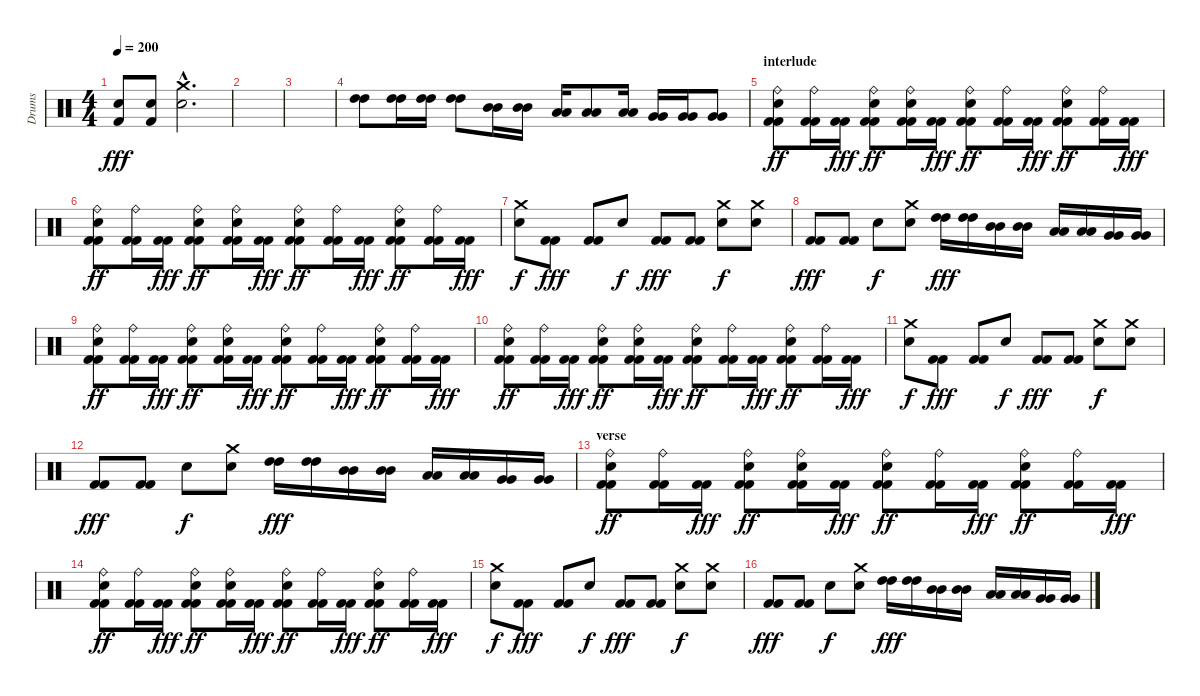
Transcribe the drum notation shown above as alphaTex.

\track ("Drums" "Drums") {instrument percussion}
\staff {score}
\articulation defaults
\ts (4 4)
\tempo 200
\clef neutral
\ks c
("Kick (hit) 2" "Electric Snare (hit)").8{dy fff} ("Kick (hit) 2" "Electric Snare (hit)").8 ("Crash medium (hit)"{hac} "Electric Snare (hit)"{hac}).2{d} |
|
|
("High Tom (hit)" "High Tom (hit)").8 ("High Tom (hit)" "High Tom (hit)").16 ("High Tom (hit)" "High Tom (hit)").16 ("High Tom (hit)" "High Tom (hit)").8 ("Mid Tom (hit)" "Mid Tom (hit)").16 ("Mid Tom (hit)" "Mid Tom (hit)").16 ("Low Tom (hit)" "Low Tom (hit)").16 ("Low Tom (hit)" "Low Tom (hit)").8 ("Low Tom (hit)" "Low Tom (hit)").16 ("Very Low Tom (hit)" "Very Low Tom (hit)").16 ("Very Low Tom (hit)" "Very Low Tom (hit)").16 ("Very Low Tom (hit)" "Very Low Tom (hit)").8 |
\section ("" "interlude")
("Kick (hit) 2" "Kick (hit) 2" "Ride (bell)" "Electric Snare (hit)").8{dy ff} ("Kick (hit) 2" "Kick (hit) 2" "Ride (bell)").16 ("Kick (hit) 2" "Kick (hit) 2").16{dy fff} ("Kick (hit) 2" "Kick (hit) 2" "Ride (bell)" "Electric Snare (hit)").8{dy ff} ("Kick (hit) 2" "Kick (hit) 2" "Ride (bell)" "Electric Snare (hit)").16 ("Kick (hit) 2" "Kick (hit) 2").16{dy fff} ("Kick (hit) 2" "Kick (hit) 2" "Ride (bell)" "Electric Snare (hit)").8{dy ff} ("Kick (hit) 2" "Kick (hit) 2" "Ride (bell)").16 ("Kick (hit) 2" "Kick (hit) 2").16{dy fff} ("Kick (hit) 2" "Kick (hit) 2" "Ride (bell)" "Electric Snare (hit)").8{dy ff} ("Kick (hit) 2" "Kick (hit) 2" "Ride (bell)").16 ("Kick (hit) 2" "Kick (hit) 2").16{dy fff} |
("Kick (hit) 2" "Kick (hit) 2" "Ride (bell)" "Electric Snare (hit)").8{dy ff} ("Kick (hit) 2" "Kick (hit) 2" "Ride (bell)").16 ("Kick (hit) 2" "Kick (hit) 2").16{dy fff} ("Kick (hit) 2" "Kick (hit) 2" "Ride (bell)" "Electric Snare (hit)").8{dy ff} ("Kick (hit) 2" "Kick (hit) 2" "Ride (bell)" "Electric Snare (hit)").16 ("Kick (hit) 2" "Kick (hit) 2").16{dy fff} ("Kick (hit) 2" "Kick (hit) 2" "Ride (bell)" "Electric Snare (hit)").8{dy ff} ("Kick (hit) 2" "Kick (hit) 2" "Ride (bell)").16 ("Kick (hit) 2" "Kick (hit) 2").16{dy fff} ("Kick (hit) 2" "Kick (hit) 2" "Ride (bell)" "Electric Snare (hit)").8{dy ff} ("Kick (hit) 2" "Kick (hit) 2" "Ride (bell)").16 ("Kick (hit) 2" "Kick (hit) 2").16{dy fff} |
("Crash medium (hit)" "Electric Snare (hit)").8{dy f} ("Kick (hit) 2" "Kick (hit) 2").8{dy fff} ("Kick (hit) 2" "Kick (hit) 2").8 "Electric Snare (hit)".8{dy f} ("Kick (hit) 2" "Kick (hit) 2").8{dy fff} ("Kick (hit) 2" "Kick (hit) 2").8 ("Crash medium (hit)" "Electric Snare (hit)").8{dy f} ("Crash medium (hit)" "Electric Snare (hit)").8 |
("Kick (hit) 2" "Kick (hit) 2").8{dy fff} ("Kick (hit) 2" "Kick (hit) 2").8 "Electric Snare (hit)".8{dy f} ("Crash medium (hit)" "Electric Snare (hit)").8 ("High Tom (hit)" "High Tom (hit)").16{dy fff} ("High Tom (hit)" "High Tom (hit)").16 ("Mid Tom (hit)" "Mid Tom (hit)").16 ("Mid Tom (hit)" "Mid Tom (hit)").16 ("Low Tom (hit)" "Low Tom (hit)").16 ("Low Tom (hit)" "Low Tom (hit)").16 ("Very Low Tom (hit)" "Very Low Tom (hit)").16 ("Very Low Tom (hit)" "Very Low Tom (hit)").16 |
("Kick (hit) 2" "Kick (hit) 2" "Ride (bell)" "Electric Snare (hit)").8{dy ff} ("Kick (hit) 2" "Kick (hit) 2" "Ride (bell)").16 ("Kick (hit) 2" "Kick (hit) 2").16{dy fff} ("Kick (hit) 2" "Kick (hit) 2" "Ride (bell)" "Electric Snare (hit)").8{dy ff} ("Kick (hit) 2" "Kick (hit) 2" "Ride (bell)" "Electric Snare (hit)").16 ("Kick (hit) 2" "Kick (hit) 2").16{dy fff} ("Kick (hit) 2" "Kick (hit) 2" "Ride (bell)" "Electric Snare (hit)").8{dy ff} ("Kick (hit) 2" "Kick (hit) 2" "Ride (bell)").16 ("Kick (hit) 2" "Kick (hit) 2").16{dy fff} ("Kick (hit) 2" "Kick (hit) 2" "Ride (bell)" "Electric Snare (hit)").8{dy ff} ("Kick (hit) 2" "Kick (hit) 2" "Ride (bell)").16 ("Kick (hit) 2" "Kick (hit) 2").16{dy fff} |
("Kick (hit) 2" "Kick (hit) 2" "Ride (bell)" "Electric Snare (hit)").8{dy ff} ("Kick (hit) 2" "Kick (hit) 2" "Ride (bell)").16 ("Kick (hit) 2" "Kick (hit) 2").16{dy fff} ("Kick (hit) 2" "Kick (hit) 2" "Ride (bell)" "Electric Snare (hit)").8{dy ff} ("Kick (hit) 2" "Kick (hit) 2" "Ride (bell)" "Electric Snare (hit)").16 ("Kick (hit) 2" "Kick (hit) 2").16{dy fff} ("Kick (hit) 2" "Kick (hit) 2" "Ride (bell)" "Electric Snare (hit)").8{dy ff} ("Kick (hit) 2" "Kick (hit) 2" "Ride (bell)").16 ("Kick (hit) 2" "Kick (hit) 2").16{dy fff} ("Kick (hit) 2" "Kick (hit) 2" "Ride (bell)" "Electric Snare (hit)").8{dy ff} ("Kick (hit) 2" "Kick (hit) 2" "Ride (bell)").16 ("Kick (hit) 2" "Kick (hit) 2").16{dy fff} |
("Crash medium (hit)" "Electric Snare (hit)").8{dy f} ("Kick (hit) 2" "Kick (hit) 2").8{dy fff} ("Kick (hit) 2" "Kick (hit) 2").8 "Electric Snare (hit)".8{dy f} ("Kick (hit) 2" "Kick (hit) 2").8{dy fff} ("Kick (hit) 2" "Kick (hit) 2").8 ("Crash medium (hit)" "Electric Snare (hit)").8{dy f} ("Crash medium (hit)" "Electric Snare (hit)").8 |
("Kick (hit) 2" "Kick (hit) 2").8{dy fff} ("Kick (hit) 2" "Kick (hit) 2").8 "Electric Snare (hit)".8{dy f} ("Crash medium (hit)" "Electric Snare (hit)").8 ("High Tom (hit)" "High Tom (hit)").16{dy fff} ("High Tom (hit)" "High Tom (hit)").16 ("Mid Tom (hit)" "Mid Tom (hit)").16 ("Mid Tom (hit)" "Mid Tom (hit)").16 ("Low Tom (hit)" "Low Tom (hit)").16 ("Low Tom (hit)" "Low Tom (hit)").16 ("Very Low Tom (hit)" "Very Low Tom (hit)").16 ("Very Low Tom (hit)" "Very Low Tom (hit)").16 |
\section ("" "verse")
("Kick (hit) 2" "Kick (hit) 2" "Ride (bell)" "Electric Snare (hit)").8{dy ff} ("Kick (hit) 2" "Kick (hit) 2" "Ride (bell)").16 ("Kick (hit) 2" "Kick (hit) 2").16{dy fff} ("Kick (hit) 2" "Kick (hit) 2" "Ride (bell)" "Electric Snare (hit)").8{dy ff} ("Kick (hit) 2" "Kick (hit) 2" "Ride (bell)" "Electric Snare (hit)").16 ("Kick (hit) 2" "Kick (hit) 2").16{dy fff} ("Kick (hit) 2" "Kick (hit) 2" "Ride (bell)" "Electric Snare (hit)").8{dy ff} ("Kick (hit) 2" "Kick (hit) 2" "Ride (bell)").16 ("Kick (hit) 2" "Kick (hit) 2").16{dy fff} ("Kick (hit) 2" "Kick (hit) 2" "Ride (bell)" "Electric Snare (hit)").8{dy ff} ("Kick (hit) 2" "Kick (hit) 2" "Ride (bell)").16 ("Kick (hit) 2" "Kick (hit) 2").16{dy fff} |
("Kick (hit) 2" "Kick (hit) 2" "Ride (bell)" "Electric Snare (hit)").8{dy ff} ("Kick (hit) 2" "Kick (hit) 2" "Ride (bell)").16 ("Kick (hit) 2" "Kick (hit) 2").16{dy fff} ("Kick (hit) 2" "Kick (hit) 2" "Ride (bell)" "Electric Snare (hit)").8{dy ff} ("Kick (hit) 2" "Kick (hit) 2" "Ride (bell)" "Electric Snare (hit)").16 ("Kick (hit) 2" "Kick (hit) 2").16{dy fff} ("Kick (hit) 2" "Kick (hit) 2" "Ride (bell)" "Electric Snare (hit)").8{dy ff} ("Kick (hit) 2" "Kick (hit) 2" "Ride (bell)").16 ("Kick (hit) 2" "Kick (hit) 2").16{dy fff} ("Kick (hit) 2" "Kick (hit) 2" "Ride (bell)" "Electric Snare (hit)").8{dy ff} ("Kick (hit) 2" "Kick (hit) 2" "Ride (bell)").16 ("Kick (hit) 2" "Kick (hit) 2").16{dy fff} |
("Crash medium (hit)" "Electric Snare (hit)").8{dy f} ("Kick (hit) 2" "Kick (hit) 2").8{dy fff} ("Kick (hit) 2" "Kick (hit) 2").8 "Electric Snare (hit)".8{dy f} ("Kick (hit) 2" "Kick (hit) 2").8{dy fff} ("Kick (hit) 2" "Kick (hit) 2").8 ("Crash medium (hit)" "Electric Snare (hit)").8{dy f} ("Crash medium (hit)" "Electric Snare (hit)").8 |
("Kick (hit) 2" "Kick (hit) 2").8{dy fff} ("Kick (hit) 2" "Kick (hit) 2").8 "Electric Snare (hit)".8{dy f} ("Crash medium (hit)" "Electric Snare (hit)").8 ("High Tom (hit)" "High Tom (hit)").16{dy fff} ("High Tom (hit)" "High Tom (hit)").16 ("Mid Tom (hit)" "Mid Tom (hit)").16 ("Mid Tom (hit)" "Mid Tom (hit)").16 ("Low Tom (hit)" "Low Tom (hit)").16 ("Low Tom (hit)" "Low Tom (hit)").16 ("Very Low Tom (hit)" "Very Low Tom (hit)").16 ("Very Low Tom (hit)" "Very Low Tom (hit)").16
